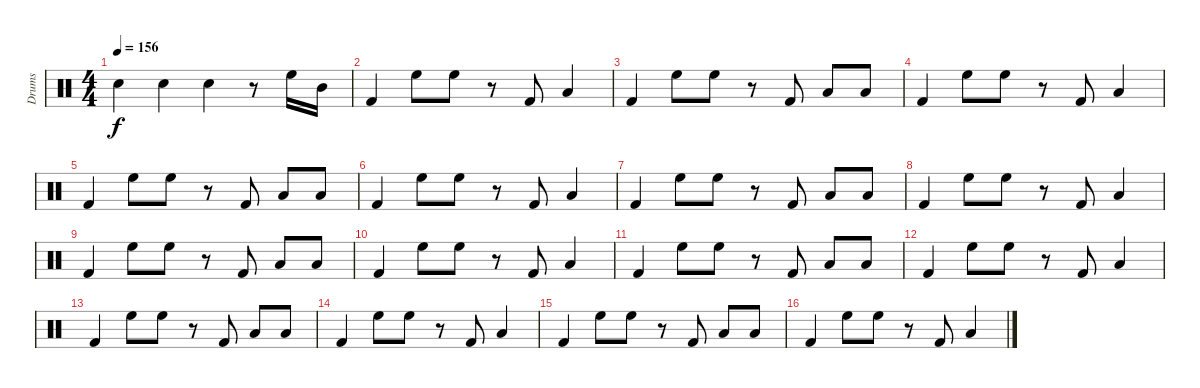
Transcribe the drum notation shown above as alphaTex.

\track ("Drums" "Drums") {instrument percussion}
\staff {score}
\articulation defaults
\ts (4 4)
\tempo 156
\clef neutral
\ks c "Snare (hit) 2".4{dy f} "Snare (hit) 2".4 "Snare (hit) 2".4
r.8 "High Floor Tom (hit)".16 "Mid Tom (hit)".16 |
"Kick (hit) 2".4 "High Floor Tom (hit)".8 "High Floor Tom (hit)".8 r.8 "Kick (hit) 2".8 "Low Tom (hit)".4 |
"Kick (hit) 2".4 "High Floor Tom (hit)".8 "High Floor Tom (hit)".8 r.8 "Kick (hit) 2".8 "Low Tom (hit)".8 "Low Tom (hit)".8 |
"Kick (hit) 2".4 "High Floor Tom (hit)".8 "High Floor Tom (hit)".8 r.8 "Kick (hit) 2".8 "Low Tom (hit)".4 |
"Kick (hit) 2".4 "High Floor Tom (hit)".8 "High Floor Tom (hit)".8 r.8 "Kick (hit) 2".8 "Low Tom (hit)".8 "Low Tom (hit)".8 |
"Kick (hit) 2".4 "High Floor Tom (hit)".8 "High Floor Tom (hit)".8 r.8 "Kick (hit) 2".8 "Low Tom (hit)".4 |
"Kick (hit) 2".4 "High Floor Tom (hit)".8 "High Floor Tom (hit)".8 r.8 "Kick (hit) 2".8 "Low Tom (hit)".8 "Low Tom (hit)".8 |
"Kick (hit) 2".4 "High Floor Tom (hit)".8 "High Floor Tom (hit)".8 r.8 "Kick (hit) 2".8 "Low Tom (hit)".4 |
"Kick (hit) 2".4 "High Floor Tom (hit)".8 "High Floor Tom (hit)".8 r.8 "Kick (hit) 2".8 "Low Tom (hit)".8 "Low Tom (hit)".8 |
"Kick (hit) 2".4 "High Floor Tom (hit)".8 "High Floor Tom (hit)".8 r.8 "Kick (hit) 2".8 "Low Tom (hit)".4 |
"Kick (hit) 2".4 "High Floor Tom (hit)".8 "High Floor Tom (hit)".8 r.8 "Kick (hit) 2".8 "Low Tom (hit)".8 "Low Tom (hit)".8 |
"Kick (hit) 2".4 "High Floor Tom (hit)".8 "High Floor Tom (hit)".8 r.8 "Kick (hit) 2".8 "Low Tom (hit)".4 |
"Kick (hit) 2".4 "High Floor Tom (hit)".8 "High Floor Tom (hit)".8 r.8 "Kick (hit) 2".8 "Low Tom (hit)".8 "Low Tom (hit)".8 |
"Kick (hit) 2".4 "High Floor Tom (hit)".8 "High Floor Tom (hit)".8 r.8 "Kick (hit) 2".8 "Low Tom (hit)".4 |
"Kick (hit) 2".4 "High Floor Tom (hit)".8 "High Floor Tom (hit)".8 r.8 "Kick (hit) 2".8 "Low Tom (hit)".8 "Low Tom (hit)".8 |
"Kick (hit) 2".4 "High Floor Tom (hit)".8 "High Floor Tom (hit)".8 r.8 "Kick (hit) 2".8 "Low Tom (hit)".4
